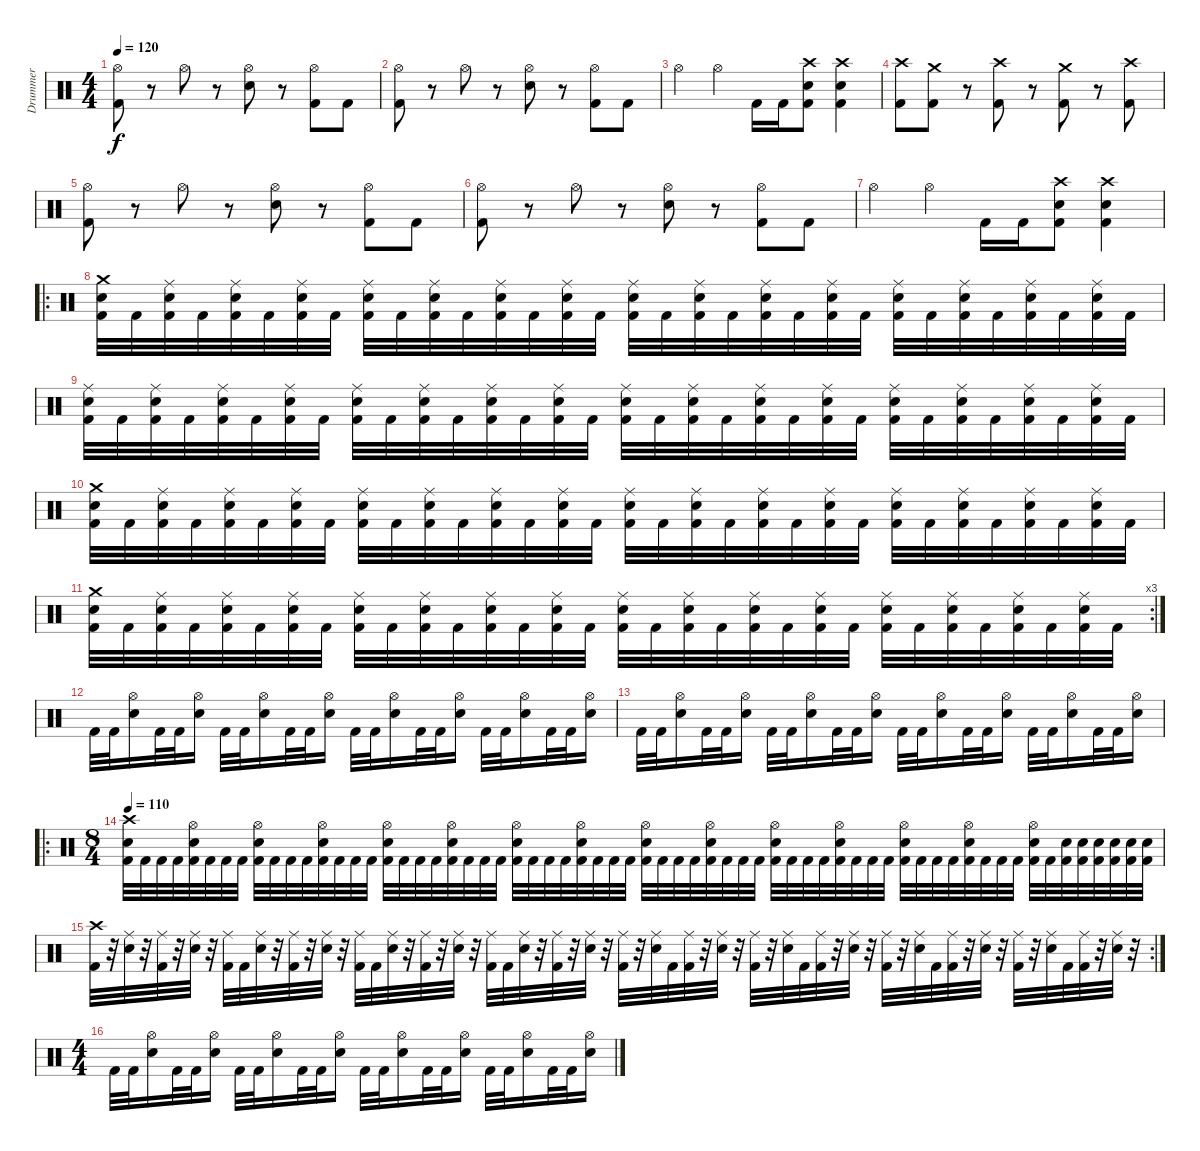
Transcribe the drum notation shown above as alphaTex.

\track ("Drummer" "Drummer") {instrument percussion}
\staff {score}
\articulation defaults
\ts (4 4)
\tempo 120
\clef neutral
\ks c
("Hi-Hat (open)" "Kick (hit) 2").8{dy f} r.8 "Hi-Hat (open)".8 r.8 ("Hi-Hat (open)" "Snare (hit) 2").8 r.8 ("Hi-Hat (open)" "Kick (hit) 2").8 "Kick (hit) 2".8 |
("Hi-Hat (open)" "Kick (hit) 2").8 r.8 "Hi-Hat (open)".8 r.8 ("Hi-Hat (open)" "Snare (hit) 2").8 r.8 ("Hi-Hat (open)" "Kick (hit) 2").8 "Kick (hit) 2".8 |
"Hi-Hat (open)".4 "Hi-Hat (open)".4 "Kick (hit) 2".16 "Kick (hit) 2".16 ("Crash high (hit)" "Snare (hit) 2" "Kick (hit) 2").8 ("Crash high (hit)" "Snare (hit) 2" "Kick (hit) 2").4 |
("Crash high (hit)" "Kick (hit) 2").8 ("Crash medium (hit)" "Kick (hit) 2").8 r.8 ("Crash high (hit)" "Kick (hit) 2").8 r.8 ("Crash medium (hit)" "Kick (hit) 2").8 r.8 ("Crash high (hit)" "Kick (hit) 2").8 |
("Hi-Hat (open)" "Kick (hit) 2").8 r.8 "Hi-Hat (open)".8 r.8 ("Hi-Hat (open)" "Snare (hit) 2").8 r.8 ("Hi-Hat (open)" "Kick (hit) 2").8 "Kick (hit) 2".8 |
("Hi-Hat (open)" "Kick (hit) 2").8 r.8 "Hi-Hat (open)".8 r.8 ("Hi-Hat (open)" "Snare (hit) 2").8 r.8 ("Hi-Hat (open)" "Kick (hit) 2").8 "Kick (hit) 2".8 |
"Hi-Hat (open)".4 "Hi-Hat (open)".4 "Kick (hit) 2".16 "Kick (hit) 2".16 ("Crash high (hit)" "Snare (hit) 2" "Kick (hit) 2").8 ("Crash high (hit)" "Snare (hit) 2" "Kick (hit) 2").4 |
\ro
("Crash medium (hit)" "Electric Snare (hit)" "Kick (hit) 2").32 "Kick (hit) 2".32 ("Ride (middle)" "Electric Snare (hit)" "Kick (hit) 2").32 "Kick (hit) 2".32 ("Ride (middle)" "Electric Snare (hit)" "Kick (hit) 2").32 "Kick (hit) 2".32 ("Ride (middle)" "Electric Snare (hit)" "Kick (hit) 2").32 "Kick (hit) 2".32 ("Ride (middle)" "Electric Snare (hit)" "Kick (hit) 2").32 "Kick (hit) 2".32 ("Ride (middle)" "Electric Snare (hit)" "Kick (hit) 2").32 "Kick (hit) 2".32 ("Ride (middle)" "Electric Snare (hit)" "Kick (hit) 2").32 "Kick (hit) 2".32 ("Ride (middle)" "Electric Snare (hit)" "Kick (hit) 2").32 "Kick (hit) 2".32 ("Ride (middle)" "Electric Snare (hit)" "Kick (hit) 2").32 "Kick (hit) 2".32 ("Ride (middle)" "Electric Snare (hit)" "Kick (hit) 2").32 "Kick (hit) 2".32 ("Ride (middle)" "Electric Snare (hit)" "Kick (hit) 2").32 "Kick (hit) 2".32 ("Ride (middle)" "Electric Snare (hit)" "Kick (hit) 2").32 "Kick (hit) 2".32 ("Ride (middle)" "Electric Snare (hit)" "Kick (hit) 2").32 "Kick (hit) 2".32 ("Ride (middle)" "Electric Snare (hit)" "Kick (hit) 2").32 "Kick (hit) 2".32 ("Ride (middle)" "Electric Snare (hit)" "Kick (hit) 2").32 "Kick (hit) 2".32 ("Ride (middle)" "Electric Snare (hit)" "Kick (hit) 2").32 "Kick (hit) 2".32 |
("Ride (middle)" "Electric Snare (hit)" "Kick (hit) 2").32 "Kick (hit) 2".32 ("Ride (middle)" "Electric Snare (hit)" "Kick (hit) 2").32 "Kick (hit) 2".32 ("Ride (middle)" "Electric Snare (hit)" "Kick (hit) 2").32 "Kick (hit) 2".32 ("Ride (middle)" "Electric Snare (hit)" "Kick (hit) 2").32 "Kick (hit) 2".32 ("Ride (middle)" "Electric Snare (hit)" "Kick (hit) 2").32 "Kick (hit) 2".32 ("Ride (middle)" "Electric Snare (hit)" "Kick (hit) 2").32 "Kick (hit) 2".32 ("Ride (middle)" "Electric Snare (hit)" "Kick (hit) 2").32 "Kick (hit) 2".32 ("Ride (middle)" "Electric Snare (hit)" "Kick (hit) 2").32 "Kick (hit) 2".32 ("Ride (middle)" "Electric Snare (hit)" "Kick (hit) 2").32 "Kick (hit) 2".32 ("Ride (middle)" "Electric Snare (hit)" "Kick (hit) 2").32 "Kick (hit) 2".32 ("Ride (middle)" "Electric Snare (hit)" "Kick (hit) 2").32 "Kick (hit) 2".32 ("Ride (middle)" "Electric Snare (hit)" "Kick (hit) 2").32 "Kick (hit) 2".32 ("Ride (middle)" "Electric Snare (hit)" "Kick (hit) 2").32 "Kick (hit) 2".32 ("Ride (middle)" "Electric Snare (hit)" "Kick (hit) 2").32 "Kick (hit) 2".32 ("Ride (middle)" "Electric Snare (hit)" "Kick (hit) 2").32 "Kick (hit) 2".32 ("Ride (middle)" "Electric Snare (hit)" "Kick (hit) 2").32 "Kick (hit) 2".32 |
("Crash medium (hit)" "Electric Snare (hit)" "Kick (hit) 2").32 "Kick (hit) 2".32 ("Ride (middle)" "Electric Snare (hit)" "Kick (hit) 2").32 "Kick (hit) 2".32 ("Ride (middle)" "Electric Snare (hit)" "Kick (hit) 2").32 "Kick (hit) 2".32 ("Ride (middle)" "Electric Snare (hit)" "Kick (hit) 2").32 "Kick (hit) 2".32 ("Ride (middle)" "Electric Snare (hit)" "Kick (hit) 2").32 "Kick (hit) 2".32 ("Ride (middle)" "Electric Snare (hit)" "Kick (hit) 2").32 "Kick (hit) 2".32 ("Ride (middle)" "Electric Snare (hit)" "Kick (hit) 2").32 "Kick (hit) 2".32 ("Ride (middle)" "Electric Snare (hit)" "Kick (hit) 2").32 "Kick (hit) 2".32 ("Ride (middle)" "Electric Snare (hit)" "Kick (hit) 2").32 "Kick (hit) 2".32 ("Ride (middle)" "Electric Snare (hit)" "Kick (hit) 2").32 "Kick (hit) 2".32 ("Ride (middle)" "Electric Snare (hit)" "Kick (hit) 2").32 "Kick (hit) 2".32 ("Ride (middle)" "Electric Snare (hit)" "Kick (hit) 2").32 "Kick (hit) 2".32 ("Ride (middle)" "Electric Snare (hit)" "Kick (hit) 2").32 "Kick (hit) 2".32 ("Ride (middle)" "Electric Snare (hit)" "Kick (hit) 2").32 "Kick (hit) 2".32 ("Ride (middle)" "Electric Snare (hit)" "Kick (hit) 2").32 "Kick (hit) 2".32 ("Ride (middle)" "Electric Snare (hit)" "Kick (hit) 2").32 "Kick (hit) 2".32 |
\rc 3
("Crash medium (hit)" "Electric Snare (hit)" "Kick (hit) 2").32 "Kick (hit) 2".32 ("Ride (middle)" "Electric Snare (hit)" "Kick (hit) 2").32 "Kick (hit) 2".32 ("Ride (middle)" "Electric Snare (hit)" "Kick (hit) 2").32 "Kick (hit) 2".32 ("Ride (middle)" "Electric Snare (hit)" "Kick (hit) 2").32 "Kick (hit) 2".32 ("Ride (middle)" "Electric Snare (hit)" "Kick (hit) 2").32 "Kick (hit) 2".32 ("Ride (middle)" "Electric Snare (hit)" "Kick (hit) 2").32 "Kick (hit) 2".32 ("Ride (middle)" "Electric Snare (hit)" "Kick (hit) 2").32 "Kick (hit) 2".32 ("Ride (middle)" "Electric Snare (hit)" "Kick (hit) 2").32 "Kick (hit) 2".32 ("Ride (middle)" "Electric Snare (hit)" "Kick (hit) 2").32 "Kick (hit) 2".32 ("Ride (middle)" "Electric Snare (hit)" "Kick (hit) 2").32 "Kick (hit) 2".32 ("Ride (middle)" "Electric Snare (hit)" "Kick (hit) 2").32 "Kick (hit) 2".32 ("Ride (middle)" "Electric Snare (hit)" "Kick (hit) 2").32 "Kick (hit) 2".32 ("Ride (middle)" "Electric Snare (hit)" "Kick (hit) 2").32 "Kick (hit) 2".32 ("Ride (middle)" "Electric Snare (hit)" "Kick (hit) 2").32 "Kick (hit) 2".32 ("Ride (middle)" "Electric Snare (hit)" "Kick (hit) 2").32 "Kick (hit) 2".32 ("Ride (middle)" "Electric Snare (hit)" "Kick (hit) 2").32 "Kick (hit) 2".32 |
"Kick (hit) 2".32 "Kick (hit) 2".32 ("Hi-Hat (open)" "Snare (hit) 2").16 "Kick (hit) 2".32 "Kick (hit) 2".32 ("Hi-Hat (open)" "Snare (hit) 2").16 "Kick (hit) 2".32 "Kick (hit) 2".32 ("Snare (hit) 2" "Hi-Hat (open)").16 "Kick (hit) 2".32 "Kick (hit) 2".32 ("Hi-Hat (open)" "Snare (hit) 2").16 "Kick (hit) 2".32 "Kick (hit) 2".32 ("Hi-Hat (open)" "Snare (hit) 2").16 "Kick (hit) 2".32 "Kick (hit) 2".32 ("Hi-Hat (open)" "Snare (hit) 2").16 "Kick (hit) 2".32 "Kick (hit) 2".32 ("Hi-Hat (open)" "Snare (hit) 2").16 "Kick (hit) 2".32 "Kick (hit) 2".32 ("Hi-Hat (open)" "Snare (hit) 2").16 |
"Kick (hit) 2".32 "Kick (hit) 2".32 ("Hi-Hat (open)" "Snare (hit) 2").16 "Kick (hit) 2".32 "Kick (hit) 2".32 ("Hi-Hat (open)" "Snare (hit) 2").16 "Kick (hit) 2".32 "Kick (hit) 2".32 ("Snare (hit) 2" "Hi-Hat (open)").16 "Kick (hit) 2".32 "Kick (hit) 2".32 ("Hi-Hat (open)" "Snare (hit) 2").16 "Kick (hit) 2".32 "Kick (hit) 2".32 ("Hi-Hat (open)" "Snare (hit) 2").16 "Kick (hit) 2".32 "Kick (hit) 2".32 ("Hi-Hat (open)" "Snare (hit) 2").16 "Kick (hit) 2".32 "Kick (hit) 2".32 ("Hi-Hat (open)" "Snare (hit) 2").16 "Kick (hit) 2".32 "Kick (hit) 2".32 ("Hi-Hat (open)" "Snare (hit) 2").16 |
\ro
\ts (8 4)
\tempo 110
("Crash high (hit)" "Snare (hit) 2" "Kick (hit) 2").32 "Kick (hit) 2".32 "Kick (hit) 2".32 "Kick (hit) 2".32 ("Hi-Hat (open)" "Snare (hit) 2" "Kick (hit) 2").32 "Kick (hit) 2".32 "Kick (hit) 2".32 "Kick (hit) 2".32 ("Hi-Hat (open)" "Snare (hit) 2" "Kick (hit) 2").32 "Kick (hit) 2".32 "Kick (hit) 2".32 "Kick (hit) 2".32 ("Hi-Hat (open)" "Snare (hit) 2" "Kick (hit) 2").32 "Kick (hit) 2".32 "Kick (hit) 2".32 "Kick (hit) 2".32 ("Hi-Hat (open)" "Snare (hit) 2" "Kick (hit) 2").32 "Kick (hit) 2".32 "Kick (hit) 2".32 "Kick (hit) 2".32 ("Hi-Hat (open)" "Snare (hit) 2" "Kick (hit) 2").32 "Kick (hit) 2".32 "Kick (hit) 2".32 "Kick (hit) 2".32 ("Hi-Hat (open)" "Snare (hit) 2" "Kick (hit) 2").32 "Kick (hit) 2".32 "Kick (hit) 2".32 "Kick (hit) 2".32 ("Hi-Hat (open)" "Snare (hit) 2" "Kick (hit) 2").32 "Kick (hit) 2".32 "Kick (hit) 2".32 "Kick (hit) 2".32 ("Hi-Hat (open)" "Snare (hit) 2" "Kick (hit) 2").32 "Kick (hit) 2".32 "Kick (hit) 2".32 "Kick (hit) 2".32 ("Hi-Hat (open)" "Snare (hit) 2" "Kick (hit) 2").32 "Kick (hit) 2".32 "Kick (hit) 2".32 "Kick (hit) 2".32 ("Hi-Hat (open)" "Snare (hit) 2" "Kick (hit) 2").32 "Kick (hit) 2".32 "Kick (hit) 2".32 "Kick (hit) 2".32 ("Hi-Hat (open)" "Snare (hit) 2" "Kick (hit) 2").32 "Kick (hit) 2".32 "Kick (hit) 2".32 "Kick (hit) 2".32 ("Hi-Hat (open)" "Snare (hit) 2" "Kick (hit) 2").32 "Kick (hit) 2".32 "Kick (hit) 2".32 "Kick (hit) 2".32 ("Hi-Hat (open)" "Snare (hit) 2" "Kick (hit) 2").32 "Kick (hit) 2".32 "Kick (hit) 2".32 "Kick (hit) 2".32 ("Hi-Hat (open)" "Snare (hit) 2" "Kick (hit) 2").32 "Kick (hit) 2".32 ("Snare (hit) 2" "Kick (hit) 2").32 ("Snare (hit) 2" "Kick (hit) 2").32 ("Snare (hit) 2" "Kick (hit) 2").32 ("Snare (hit) 2" "Kick (hit) 2").32 ("Snare (hit) 2" "Kick (hit) 2").32 ("Snare (hit) 2" "Kick (hit) 2").32 |
\rc 2
("Crash high (hit)" "Kick (hit) 2").32 r.32 ("Ride (middle)" "Snare (hit) 2").32 r.32 ("Ride (middle)" "Kick (hit) 2").32 r.32 ("Ride (middle)" "Snare (hit) 2").32 r.32 ("Ride (middle)" "Kick (hit) 2").32 "Kick (hit) 2".32 ("Ride (middle)" "Snare (hit) 2").32 r.32 ("Ride (middle)" "Kick (hit) 2").32 r.32 ("Ride (middle)" "Snare (hit) 2").32 r.32 ("Ride (middle)" "Kick (hit) 2").32 "Kick (hit) 2".32 ("Ride (middle)" "Snare (hit) 2").32 r.32 ("Ride (middle)" "Kick (hit) 2").32 r.32 ("Ride (middle)" "Snare (hit) 2").32 r.32 ("Ride (middle)" "Kick (hit) 2").32 "Kick (hit) 2".32 ("Ride (middle)" "Snare (hit) 2").32 r.32 ("Ride (middle)" "Kick (hit) 2").32 r.32 ("Ride (middle)" "Snare (hit) 2").32 r.32 ("Ride (middle)" "Kick (hit) 2").32 r.32 ("Ride (middle)" "Snare (hit) 2").32 "Kick (hit) 2".32 ("Ride (middle)" "Kick (hit) 2").32 r.32 ("Ride (middle)" "Snare (hit) 2").32 r.32 ("Ride (middle)" "Kick (hit) 2").32 r.32 ("Ride (middle)" "Snare (hit) 2").32 "Kick (hit) 2".32 ("Ride (middle)" "Kick (hit) 2").32 r.32 ("Ride (middle)" "Snare (hit) 2").32 r.32 ("Ride (middle)" "Kick (hit) 2").32 r.32 ("Ride (middle)" "Snare (hit) 2").32 "Kick (hit) 2".32 ("Ride (middle)" "Kick (hit) 2").32 r.32 ("Ride (middle)" "Snare (hit) 2").32 r.32 ("Ride (middle)" "Kick (hit) 2").32 r.32 ("Ride (middle)" "Snare (hit) 2").32 "Kick (hit) 2".32 ("Ride (middle)" "Kick (hit) 2").32 r.32 ("Ride (middle)" "Snare (hit) 2").32 r.32 |
\ts (4 4)
"Kick (hit) 2".32 "Kick (hit) 2".32 ("Hi-Hat (open)" "Snare (hit) 2").16 "Kick (hit) 2".32 "Kick (hit) 2".32 ("Hi-Hat (open)" "Snare (hit) 2").16 "Kick (hit) 2".32 "Kick (hit) 2".32 ("Snare (hit) 2" "Hi-Hat (open)").16 "Kick (hit) 2".32 "Kick (hit) 2".32 ("Hi-Hat (open)" "Snare (hit) 2").16 "Kick (hit) 2".32 "Kick (hit) 2".32 ("Hi-Hat (open)" "Snare (hit) 2").16 "Kick (hit) 2".32 "Kick (hit) 2".32 ("Hi-Hat (open)" "Snare (hit) 2").16 "Kick (hit) 2".32 "Kick (hit) 2".32 ("Hi-Hat (open)" "Snare (hit) 2").16 "Kick (hit) 2".32 "Kick (hit) 2".32 ("Hi-Hat (open)" "Snare (hit) 2").16
